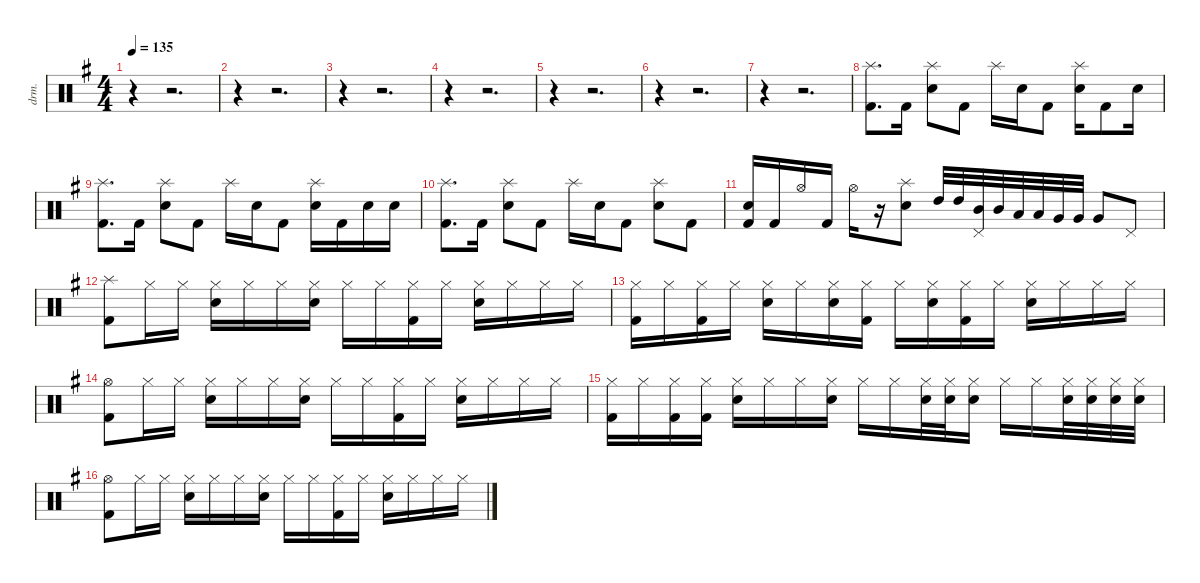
\defaultSystemsLayout 4
\hideDynamics
\bracketExtendMode nobrackets
\track ("榧" "drm.") {instrument percussion}
\staff {score}
\articulation defaults
\ts (4 4)
\beaming (8 2 2 2 2)
\tempo 135
\clef neutral
\ks eminor
r.4{dy mf beam Down} r.2{d beam Down} |
r.4{beam Down} r.2{d beam Down} |
r.4{beam Down} r.2{d beam Down} |
r.4{beam Down} r.2{d beam Down} |
r.4{beam Down} r.2{d beam Down} |
r.4{beam Down} r.2{d beam Down} |
r.4{beam Down} r.2{d beam Down} |
("Splash (hit)"{acc forcenatural} "Kick (hit) 2"{acc forcenatural}).8{d beam Down} "Kick (hit) 2"{acc forcenatural}.16{beam Down} ("Snare (hit) 2"{acc forcenatural} "Splash (hit)"{acc forcenatural}).8{beam Down} "Kick (hit) 2"{acc forcenatural}.8{beam Down} "Splash (hit)"{acc forcenatural}.16{beam Down} "Snare (hit) 2"{acc forcenatural}.16{beam Down} "Kick (hit) 2"{acc forcenatural}.8{beam Down} ("Splash (hit)"{acc forcenatural} "Snare (hit) 2"{acc forcenatural}).16{beam Down} "Kick (hit) 2"{acc forcenatural}.8{beam Down} "Snare (hit) 2"{acc forcenatural}.16{beam Down} |
("Splash (hit)"{acc forcenatural} "Kick (hit) 2"{acc forcenatural}).8{d beam Down} "Kick (hit) 2"{acc forcenatural}.16{beam Down} ("Snare (hit) 2"{acc forcenatural} "Splash (hit)"{acc forcenatural}).8{beam Down} "Kick (hit) 2"{acc forcenatural}.8{beam Down} "Splash (hit)"{acc forcenatural}.16{beam Down} "Snare (hit) 2"{acc forcenatural}.16{beam Down} "Kick (hit) 2"{acc forcenatural}.8{beam Down} ("Splash (hit)"{acc forcenatural} "Snare (hit) 2"{acc forcenatural}).16{beam Down} "Kick (hit) 2"{acc forcenatural}.16{beam Down} "Snare (hit) 2"{acc forcenatural}.16{beam Down} "Snare (hit) 2"{acc forcenatural}.16{beam Down} |
("Splash (hit)"{acc forcenatural} "Kick (hit) 2"{acc forcenatural}).8{d beam Down} "Kick (hit) 2"{acc forcenatural}.16{beam Down} ("Snare (hit) 2"{acc forcenatural} "Splash (hit)"{acc forcenatural}).8{beam Down} "Kick (hit) 2"{acc forcenatural}.8{beam Down} "Splash (hit)"{acc forcenatural}.16{beam Down} "Snare (hit) 2"{acc forcenatural}.16{beam Down} "Kick (hit) 2"{acc forcenatural}.8{beam Down} ("Splash (hit)"{acc forcenatural} "Snare (hit) 2"{acc forcenatural}).8{beam Down} "Kick (hit) 2"{acc forcenatural}.8{beam Down} |
("Kick (hit) 2"{acc forcenatural} "Snare (hit) 2"{acc forcenatural}).16{beam Up} "Kick (hit) 2"{acc forcenatural}.16{beam Up} "Hi-Hat (open)"{acc forcenatural}.16{beam Up} "Kick (hit) 2"{acc forcenatural}.16{beam Up} "Hi-Hat (open)"{acc forcenatural}.16{beam Down} r.16{beam Down} ("Splash (hit)"{acc forcenatural} "Snare (hit) 2"{acc forcenatural}).8{beam Down} "High Tom (hit)"{acc forcenatural}.32{beam Up} "High Tom (hit)"{acc forcenatural}.32{beam Up} ("Mid Tom (hit)"{acc forcenatural} "Pedal Hi-Hat (hit)"{acc forcenatural}).32{beam Up} "Mid Tom (hit)"{acc forcenatural}.32{beam Up} "Low Tom (hit)"{acc forcenatural}.32{beam Up} "Low Tom (hit)"{acc forcenatural}.32{beam Up} "Very Low Tom (hit)"{acc forcenatural}.32{beam Up} "Very Low Tom (hit)"{acc forcenatural}.32{beam Up} "Very Low Tom (hit)"{acc forcenatural}.8{beam Up} "Pedal Hi-Hat (hit)"{acc forcenatural}.8{beam Up} |
("Kick (hit) 2"{acc forcenatural} "Splash (hit)"{acc forcenatural}).8{beam Down} "Hi-Hat (closed)"{acc forcenatural}.16{beam Down} "Hi-Hat (closed)"{acc forcenatural}.16{beam Down} ("Hi-Hat (closed)"{acc forcenatural} "Snare (hit) 2"{acc forcenatural}).16{beam Down} "Hi-Hat (closed)"{acc forcenatural}.16{beam Down} "Hi-Hat (closed)"{acc forcenatural}.16{beam Down} ("Hi-Hat (closed)"{acc forcenatural} "Snare (hit) 2"{acc forcenatural}).16{beam Down} "Hi-Hat (closed)"{acc forcenatural}.16{beam Down} "Hi-Hat (closed)"{acc forcenatural}.16{beam Down} ("Hi-Hat (closed)"{acc forcenatural} "Kick (hit) 2"{acc forcenatural}).16{beam Down} "Hi-Hat (closed)"{acc forcenatural}.16{beam Down} ("Hi-Hat (closed)"{acc forcenatural} "Snare (hit) 2"{acc forcenatural}).16{beam Down} "Hi-Hat (closed)"{acc forcenatural}.16{beam Down} "Hi-Hat (closed)"{acc forcenatural}.16{beam Down} "Hi-Hat (closed)"{acc forcenatural}.16{beam Down} |
("Kick (hit) 2"{acc forcenatural} "Hi-Hat (closed)"{acc forcenatural}).16{beam Down} "Hi-Hat (closed)"{acc forcenatural}.16{beam Down} ("Hi-Hat (closed)"{acc forcenatural} "Kick (hit) 2"{acc forcenatural}).16{beam Down} "Hi-Hat (closed)"{acc forcenatural}.16{beam Down} ("Hi-Hat (closed)"{acc forcenatural} "Snare (hit) 2"{acc forcenatural}).16{beam Down} "Hi-Hat (closed)"{acc forcenatural}.16{beam Down} ("Hi-Hat (closed)"{acc forcenatural} "Snare (hit) 2"{acc forcenatural}).16{beam Down} ("Hi-Hat (closed)"{acc forcenatural} "Kick (hit) 2"{acc forcenatural}).16{beam Down} "Hi-Hat (closed)"{acc forcenatural}.16{beam Down} ("Hi-Hat (closed)"{acc forcenatural} "Snare (hit) 2"{acc forcenatural}).16{beam Down} ("Hi-Hat (closed)"{acc forcenatural} "Kick (hit) 2"{acc forcenatural}).16{beam Down} "Hi-Hat (closed)"{acc forcenatural}.16{beam Down} ("Hi-Hat (closed)"{acc forcenatural} "Snare (hit) 2"{acc forcenatural}).16{beam Down} "Hi-Hat (closed)"{acc forcenatural}.16{beam Down} "Hi-Hat (closed)"{acc forcenatural}.16{beam Down} "Hi-Hat (closed)"{acc forcenatural}.16{beam Down} |
("Kick (hit) 2"{acc forcenatural} "Hi-Hat (open)"{acc forcenatural}).8{beam Down} "Hi-Hat (closed)"{acc forcenatural}.16{beam Down} "Hi-Hat (closed)"{acc forcenatural}.16{beam Down} ("Hi-Hat (closed)"{acc forcenatural} "Snare (hit) 2"{acc forcenatural}).16{beam Down} "Hi-Hat (closed)"{acc forcenatural}.16{beam Down} "Hi-Hat (closed)"{acc forcenatural}.16{beam Down} ("Hi-Hat (closed)"{acc forcenatural} "Snare (hit) 2"{acc forcenatural}).16{beam Down} "Hi-Hat (closed)"{acc forcenatural}.16{beam Down} "Hi-Hat (closed)"{acc forcenatural}.16{beam Down} ("Hi-Hat (closed)"{acc forcenatural} "Kick (hit) 2"{acc forcenatural}).16{beam Down} "Hi-Hat (closed)"{acc forcenatural}.16{beam Down} ("Hi-Hat (closed)"{acc forcenatural} "Snare (hit) 2"{acc forcenatural}).16{beam Down} "Hi-Hat (closed)"{acc forcenatural}.16{beam Down} "Hi-Hat (closed)"{acc forcenatural}.16{beam Down} "Hi-Hat (closed)"{acc forcenatural}.16{beam Down} |
("Kick (hit) 2"{acc forcenatural} "Hi-Hat (closed)"{acc forcenatural}).16{beam Down} "Hi-Hat (closed)"{acc forcenatural}.16{beam Down} ("Hi-Hat (closed)"{acc forcenatural} "Kick (hit) 2"{acc forcenatural}).16{beam Down} ("Hi-Hat (closed)"{acc forcenatural} "Kick (hit) 2"{acc forcenatural}).16{beam Down} ("Hi-Hat (closed)"{acc forcenatural} "Snare (hit) 2"{acc forcenatural}).16{beam Down} "Hi-Hat (closed)"{acc forcenatural}.16{beam Down} "Hi-Hat (closed)"{acc forcenatural}.16{beam Down} ("Hi-Hat (closed)"{acc forcenatural} "Snare (hit) 2"{acc forcenatural}).16{beam Down} "Hi-Hat (closed)"{acc forcenatural}.16{beam Down} "Hi-Hat (closed)"{acc forcenatural}.16{beam Down} ("Hi-Hat (closed)"{acc forcenatural} "Snare (hit) 2"{acc forcenatural}).32{beam Down} ("Hi-Hat (closed)"{acc forcenatural} "Snare (hit) 2"{acc forcenatural}).32{beam Down} ("Hi-Hat (closed)"{acc forcenatural} "Snare (hit) 2"{acc forcenatural}).16{beam Down} "Hi-Hat (closed)"{acc forcenatural}.16{beam Down} "Hi-Hat (closed)"{acc forcenatural}.16{beam Down} ("Hi-Hat (closed)"{acc forcenatural} "Snare (hit) 2"{acc forcenatural}).32{beam Down} ("Hi-Hat (closed)"{acc forcenatural} "Snare (hit) 2"{acc forcenatural}).32{beam Down} ("Hi-Hat (closed)"{acc forcenatural} "Snare (hit) 2"{acc forcenatural}).32{beam Down} ("Hi-Hat (closed)"{acc forcenatural} "Snare (hit) 2"{acc forcenatural}).32{beam Down} |
("Kick (hit) 2"{acc forcenatural} "Hi-Hat (open)"{acc forcenatural}).8{beam Down} "Hi-Hat (closed)"{acc forcenatural}.16{beam Down} "Hi-Hat (closed)"{acc forcenatural}.16{beam Down} ("Hi-Hat (closed)"{acc forcenatural} "Snare (hit) 2"{acc forcenatural}).16{beam Down} "Hi-Hat (closed)"{acc forcenatural}.16{beam Down} "Hi-Hat (closed)"{acc forcenatural}.16{beam Down} ("Hi-Hat (closed)"{acc forcenatural} "Snare (hit) 2"{acc forcenatural}).16{beam Down} "Hi-Hat (closed)"{acc forcenatural}.16{beam Down} "Hi-Hat (closed)"{acc forcenatural}.16{beam Down} ("Hi-Hat (closed)"{acc forcenatural} "Kick (hit) 2"{acc forcenatural}).16{beam Down} "Hi-Hat (closed)"{acc forcenatural}.16{beam Down} ("Hi-Hat (closed)"{acc forcenatural} "Snare (hit) 2"{acc forcenatural}).16{beam Down} "Hi-Hat (closed)"{acc forcenatural}.16{beam Down} "Hi-Hat (closed)"{acc forcenatural}.16{beam Down} "Hi-Hat (closed)"{acc forcenatural}.16{beam Down}
